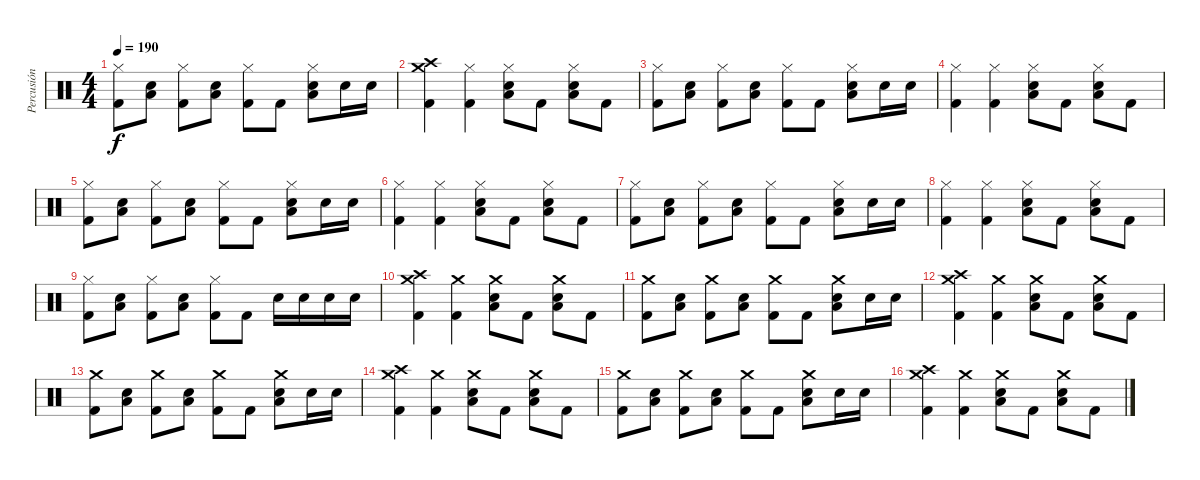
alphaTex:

\track ("Percusión" "Percusión") {instrument percussion}
\staff {score}
\articulation defaults
\ts (4 4)
\tempo 190
\clef neutral
\ks c
("Hi-Hat (closed)" "Kick (hit) 2").8{dy f} ("Low Tom (hit)" "Snare (hit) 2").8 ("Hi-Hat (closed)" "Kick (hit) 2").8 ("Low Tom (hit)" "Snare (hit) 2").8 ("Hi-Hat (closed)" "Kick (hit) 2").8 "Kick (hit) 2".8 ("Hi-Hat (closed)" "Low Tom (hit)" "Snare (hit) 2").8 "Snare (hit) 2".16 "Snare (hit) 2".16 |
("Crash medium (hit)" "Crash high (hit)" "Kick (hit) 2").4 ("Hi-Hat (closed)" "Kick (hit) 2").4 ("Hi-Hat (closed)" "Low Tom (hit)" "Snare (hit) 2").8 "Kick (hit) 2".8 ("Hi-Hat (closed)" "Low Tom (hit)" "Snare (hit) 2").8 "Kick (hit) 2".8 |
("Hi-Hat (closed)" "Kick (hit) 2").8 ("Low Tom (hit)" "Snare (hit) 2").8 ("Hi-Hat (closed)" "Kick (hit) 2").8 ("Low Tom (hit)" "Snare (hit) 2").8 ("Hi-Hat (closed)" "Kick (hit) 2").8 "Kick (hit) 2".8 ("Hi-Hat (closed)" "Low Tom (hit)" "Snare (hit) 2").8 "Snare (hit) 2".16 "Snare (hit) 2".16 |
("Hi-Hat (closed)" "Kick (hit) 2").4 ("Hi-Hat (closed)" "Kick (hit) 2").4 ("Hi-Hat (closed)" "Low Tom (hit)" "Snare (hit) 2").8 "Kick (hit) 2".8 ("Hi-Hat (closed)" "Low Tom (hit)" "Snare (hit) 2").8 "Kick (hit) 2".8 |
("Hi-Hat (closed)" "Kick (hit) 2").8 ("Low Tom (hit)" "Snare (hit) 2").8 ("Hi-Hat (closed)" "Kick (hit) 2").8 ("Low Tom (hit)" "Snare (hit) 2").8 ("Hi-Hat (closed)" "Kick (hit) 2").8 "Kick (hit) 2".8 ("Hi-Hat (closed)" "Low Tom (hit)" "Snare (hit) 2").8 "Snare (hit) 2".16 "Snare (hit) 2".16 |
("Hi-Hat (closed)" "Kick (hit) 2").4 ("Hi-Hat (closed)" "Kick (hit) 2").4 ("Hi-Hat (closed)" "Low Tom (hit)" "Snare (hit) 2").8 "Kick (hit) 2".8 ("Hi-Hat (closed)" "Low Tom (hit)" "Snare (hit) 2").8 "Kick (hit) 2".8 |
("Hi-Hat (closed)" "Kick (hit) 2").8 ("Low Tom (hit)" "Snare (hit) 2").8 ("Hi-Hat (closed)" "Kick (hit) 2").8 ("Low Tom (hit)" "Snare (hit) 2").8 ("Hi-Hat (closed)" "Kick (hit) 2").8 "Kick (hit) 2".8 ("Hi-Hat (closed)" "Low Tom (hit)" "Snare (hit) 2").8 "Snare (hit) 2".16 "Snare (hit) 2".16 |
("Hi-Hat (closed)" "Kick (hit) 2").4 ("Hi-Hat (closed)" "Kick (hit) 2").4 ("Hi-Hat (closed)" "Low Tom (hit)" "Snare (hit) 2").8 "Kick (hit) 2".8 ("Hi-Hat (closed)" "Low Tom (hit)" "Snare (hit) 2").8 "Kick (hit) 2".8 |
("Hi-Hat (closed)" "Kick (hit) 2").8 ("Low Tom (hit)" "Snare (hit) 2").8 ("Hi-Hat (closed)" "Kick (hit) 2").8 ("Low Tom (hit)" "Snare (hit) 2").8 ("Hi-Hat (closed)" "Kick (hit) 2").8 "Kick (hit) 2".8 "Snare (hit) 2".16 "Snare (hit) 2".16 "Snare (hit) 2".16 "Snare (hit) 2".16 |
("Crash medium (hit)" "Crash high (hit)" "Kick (hit) 2").4 ("Crash medium (hit)" "Kick (hit) 2").4 ("Crash medium (hit)" "Low Tom (hit)" "Snare (hit) 2").8 "Kick (hit) 2".8 ("Crash medium (hit)" "Low Tom (hit)" "Snare (hit) 2").8 "Kick (hit) 2".8 |
("Crash medium (hit)" "Kick (hit) 2").8 ("Low Tom (hit)" "Snare (hit) 2").8 ("Crash medium (hit)" "Kick (hit) 2").8 ("Low Tom (hit)" "Snare (hit) 2").8 ("Crash medium (hit)" "Kick (hit) 2").8 "Kick (hit) 2".8 ("Crash medium (hit)" "Low Tom (hit)" "Snare (hit) 2").8 "Snare (hit) 2".16 "Snare (hit) 2".16 |
("Crash medium (hit)" "Crash high (hit)" "Kick (hit) 2").4 ("Crash medium (hit)" "Kick (hit) 2").4 ("Crash medium (hit)" "Low Tom (hit)" "Snare (hit) 2").8 "Kick (hit) 2".8 ("Crash medium (hit)" "Low Tom (hit)" "Snare (hit) 2").8 "Kick (hit) 2".8 |
("Crash medium (hit)" "Kick (hit) 2").8 ("Low Tom (hit)" "Snare (hit) 2").8 ("Crash medium (hit)" "Kick (hit) 2").8 ("Low Tom (hit)" "Snare (hit) 2").8 ("Crash medium (hit)" "Kick (hit) 2").8 "Kick (hit) 2".8 ("Crash medium (hit)" "Low Tom (hit)" "Snare (hit) 2").8 "Snare (hit) 2".16 "Snare (hit) 2".16 |
("Crash medium (hit)" "Crash high (hit)" "Kick (hit) 2").4 ("Crash medium (hit)" "Kick (hit) 2").4 ("Crash medium (hit)" "Low Tom (hit)" "Snare (hit) 2").8 "Kick (hit) 2".8 ("Crash medium (hit)" "Low Tom (hit)" "Snare (hit) 2").8 "Kick (hit) 2".8 |
("Crash medium (hit)" "Kick (hit) 2").8 ("Low Tom (hit)" "Snare (hit) 2").8 ("Crash medium (hit)" "Kick (hit) 2").8 ("Low Tom (hit)" "Snare (hit) 2").8 ("Crash medium (hit)" "Kick (hit) 2").8 "Kick (hit) 2".8 ("Crash medium (hit)" "Low Tom (hit)" "Snare (hit) 2").8 "Snare (hit) 2".16 "Snare (hit) 2".16 |
("Crash medium (hit)" "Crash high (hit)" "Kick (hit) 2").4 ("Crash medium (hit)" "Kick (hit) 2").4 ("Crash medium (hit)" "Low Tom (hit)" "Snare (hit) 2").8 "Kick (hit) 2".8 ("Crash medium (hit)" "Low Tom (hit)" "Snare (hit) 2").8 "Kick (hit) 2".8
